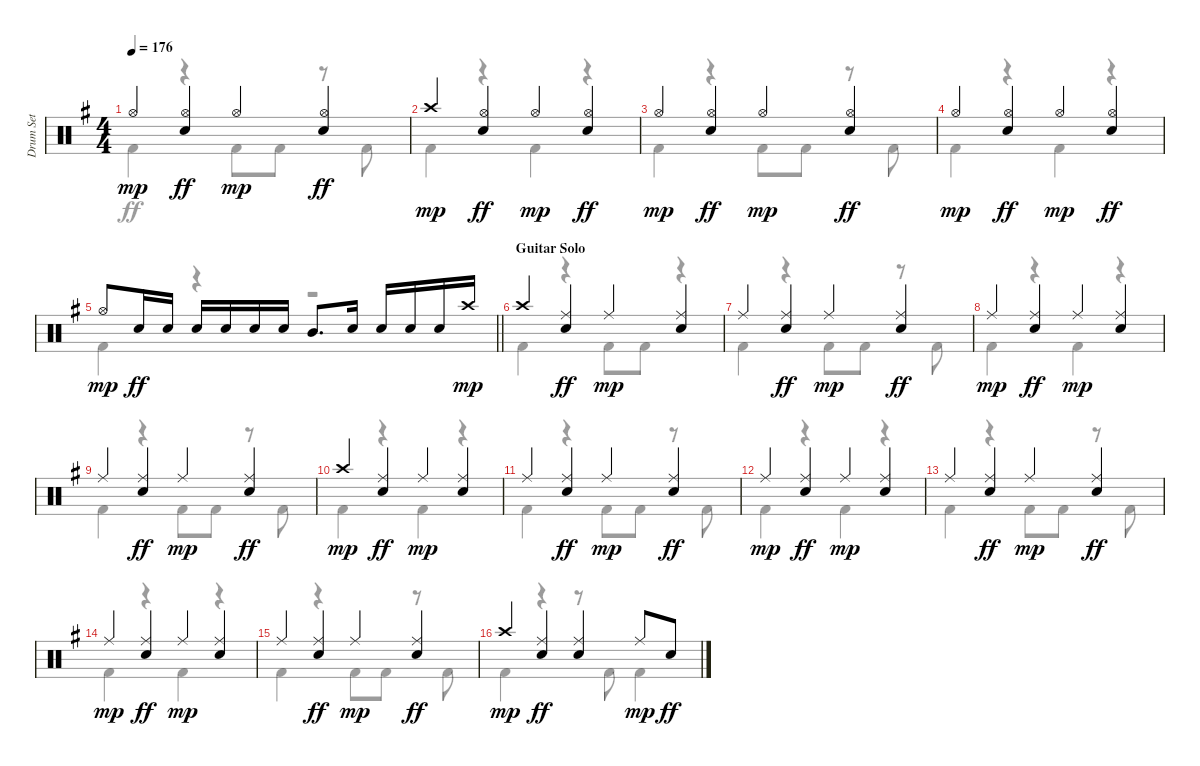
\track ("Drum Set" "Drum Set") {instrument percussion}
\staff {score}
\articulation defaults
\voice
\ts (4 4)
\tempo 176
\clef neutral
\ks eminor "Hi-Hat (open)".4{dy mp}
("Hi-Hat (open)" "Electric Snare (hit)").4{dy ff} "Hi-Hat (open)".4{dy mp} ("Hi-Hat (open)" "Electric Snare (hit)").4{dy ff} |
"Crash high (hit)".4{dy mp} ("Hi-Hat (open)" "Electric Snare (hit)").4{dy ff} "Hi-Hat (open)".4{dy mp} ("Hi-Hat (open)" "Electric Snare (hit)").4{dy ff} |
"Hi-Hat (open)".4{dy mp} ("Hi-Hat (open)" "Electric Snare (hit)").4{dy ff} "Hi-Hat (open)".4{dy mp} ("Hi-Hat (open)" "Electric Snare (hit)").4{dy ff} |
"Hi-Hat (open)".4{dy mp} ("Hi-Hat (open)" "Electric Snare (hit)").4{dy ff} "Hi-Hat (open)".4{dy mp} ("Hi-Hat (open)" "Electric Snare (hit)").4{dy ff} |
\barLineRight lightlight "Hi-Hat (open)".8{dy mp} "Electric Snare (hit)".16{dy ff} "Electric Snare (hit)".16 "Electric Snare (hit)".16 "Electric Snare (hit)".16 "Electric Snare (hit)".16 "Electric Snare (hit)".16 "Mid Tom (hit)".8{d} "Electric Snare (hit)".16 "Electric Snare (hit)".16 "Electric Snare (hit)".16 "Electric Snare (hit)".16 "Crash high (hit)".16{dy mp}
|
\section ("" "Guitar Solo")
"Crash high (hit)".4 ("Ride (middle)" "Electric Snare (hit)").4{dy ff} "Ride (middle)".4{dy mp} ("Ride (middle)" "Electric Snare (hit)").4 |
"Ride (middle)".4 ("Ride (middle)" "Electric Snare (hit)").4{dy ff} "Ride (middle)".4{dy mp} ("Ride (middle)" "Electric Snare (hit)").4{dy ff} |
"Ride (middle)".4{dy mp} ("Ride (middle)" "Electric Snare (hit)").4{dy ff} "Ride (middle)".4{dy mp} ("Ride (middle)" "Electric Snare (hit)").4 |
"Ride (middle)".4 ("Ride (middle)" "Electric Snare (hit)").4{dy ff} "Ride (middle)".4{dy mp} ("Ride (middle)" "Electric Snare (hit)").4{dy ff} |
"Crash high (hit)".4{dy mp} ("Ride (middle)" "Electric Snare (hit)").4{dy ff} "Ride (middle)".4{dy mp} ("Ride (middle)" "Electric Snare (hit)").4 |
"Ride (middle)".4 ("Ride (middle)" "Electric Snare (hit)").4{dy ff} "Ride (middle)".4{dy mp} ("Ride (middle)" "Electric Snare (hit)").4{dy ff} |
"Ride (middle)".4{dy mp} ("Ride (middle)" "Electric Snare (hit)").4{dy ff} "Ride (middle)".4{dy mp} ("Ride (middle)" "Electric Snare (hit)").4 |
"Ride (middle)".4 ("Ride (middle)" "Electric Snare (hit)").4{dy ff} "Ride (middle)".4{dy mp} ("Ride (middle)" "Electric Snare (hit)").4{dy ff} |
"Ride (middle)".4{dy mp} ("Ride (middle)" "Electric Snare (hit)").4{dy ff} "Ride (middle)".4{dy mp} ("Ride (middle)" "Electric Snare (hit)").4 |
"Ride (middle)".4 ("Ride (middle)" "Electric Snare (hit)").4{dy ff} "Ride (middle)".4{dy mp} ("Ride (middle)" "Electric Snare (hit)").4{dy ff} |
"Crash high (hit)".4{dy mp} ("Ride (middle)" "Electric Snare (hit)").4{dy ff} ("Ride (middle)" "Electric Snare (hit)").4 "Ride (middle)".8{dy mp} "Electric Snare (hit)".8{dy ff}
\voice
\clef neutral
\ottava regular
\simile none
\ks eminor "Kick (hit) 2".4{dy ff}
r.4 "Kick (hit) 2".8 "Kick (hit) 2".8 r.8 "Kick (hit) 2".8 |
"Kick (hit) 2".4 r.4 "Kick (hit) 2".4 r.4 |
"Kick (hit) 2".4 r.4 "Kick (hit) 2".8 "Kick (hit) 2".8 r.8 "Kick (hit) 2".8 |
"Kick (hit) 2".4 r.4 "Kick (hit) 2".4 r.4 |
\barLineRight lightlight "Kick (hit) 2".4
r.4 r.2 |
"Kick (hit) 2".4 r.4 "Kick (hit) 2".8 "Kick (hit) 2".8 r.4 |
"Kick (hit) 2".4 r.4 "Kick (hit) 2".8 "Kick (hit) 2".8 r.8 "Kick (hit) 2".8 |
"Kick (hit) 2".4 r.4 "Kick (hit) 2".4 r.4 |
"Kick (hit) 2".4 r.4 "Kick (hit) 2".8 "Kick (hit) 2".8 r.8 "Kick (hit) 2".8 |
"Kick (hit) 2".4 r.4 "Kick (hit) 2".4 r.4 |
"Kick (hit) 2".4 r.4 "Kick (hit) 2".8 "Kick (hit) 2".8 r.8 "Kick (hit) 2".8 |
"Kick (hit) 2".4 r.4 "Kick (hit) 2".4 r.4 |
"Kick (hit) 2".4 r.4 "Kick (hit) 2".8 "Kick (hit) 2".8 r.8 "Kick (hit) 2".8 |
"Kick (hit) 2".4 r.4 "Kick (hit) 2".4 r.4 |
"Kick (hit) 2".4 r.4 "Kick (hit) 2".8 "Kick (hit) 2".8 r.8 "Kick (hit) 2".8 |
"Kick (hit) 2".4 r.4 r.8 "Kick (hit) 2".8 "Kick (hit) 2".4
